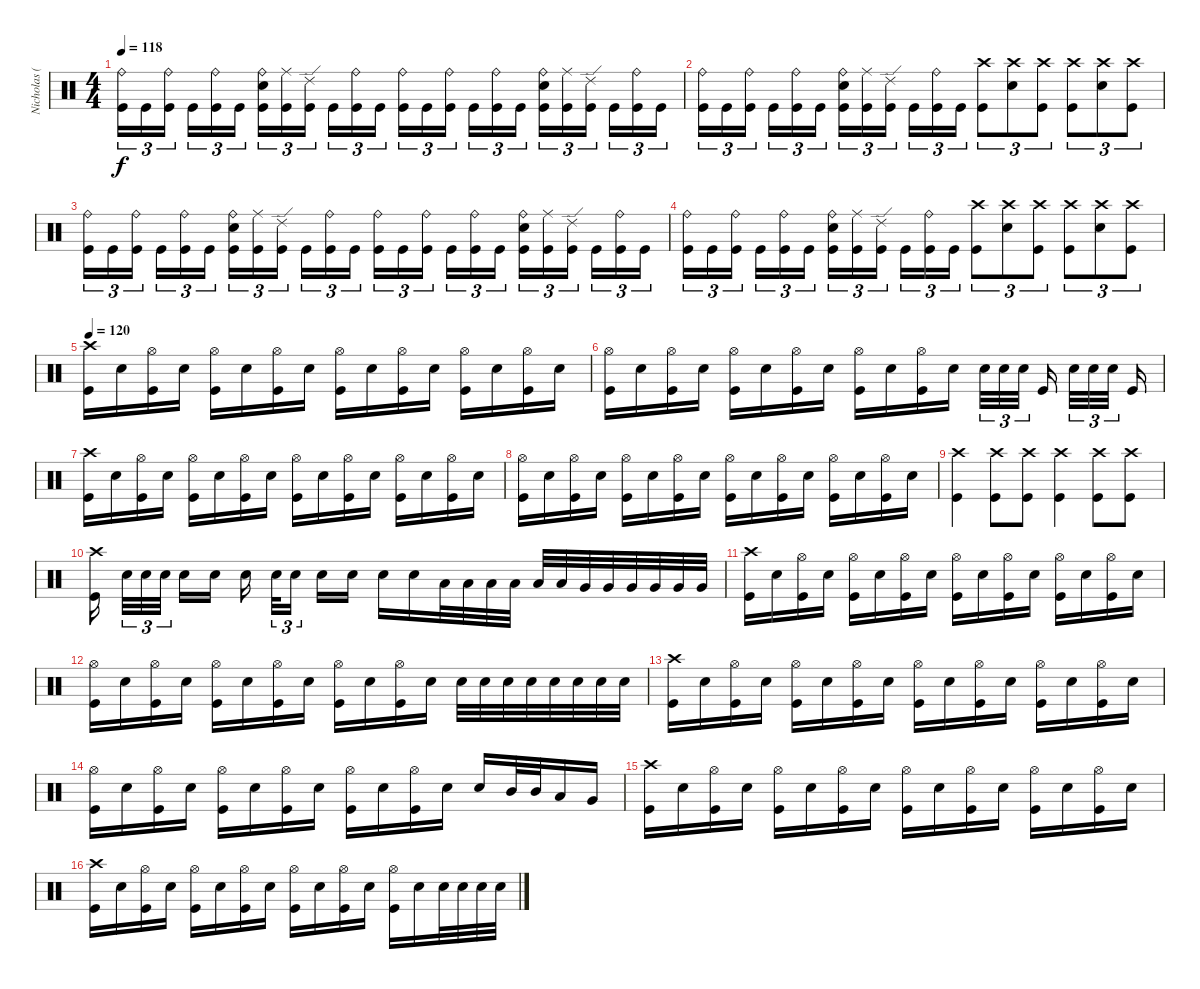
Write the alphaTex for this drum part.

\track ("Nicholas (Drums)" "Nicholas (") {instrument percussion}
\staff {score}
\articulation defaults
\ts (4 4)
\tempo 118
\clef neutral
\ks c
("Ride (bell)" "Kick (hit)").16{tu (3 2) dy f} "Kick (hit)".16{tu (3 2)} ("Ride (bell)" "Kick (hit)").16{tu (3 2)} "Kick (hit)".16{tu (3 2)} ("Ride (bell)" "Kick (hit)").16{tu (3 2)} "Kick (hit)".16{tu (3 2)} ("Ride (bell)" "Electric Snare (hit)" "Kick (hit)").16{tu (3 2)} ("Ride (middle)" "Kick (hit)").16{tu (3 2)} ("Ride (edge) 2" "Kick (hit)").16{tu (3 2)} "Kick (hit)".16{tu (3 2)} ("Ride (bell)" "Kick (hit)").16{tu (3 2)} "Kick (hit)".16{tu (3 2)} ("Ride (bell)" "Kick (hit)").16{tu (3 2)} "Kick (hit)".16{tu (3 2)} ("Ride (bell)" "Kick (hit)").16{tu (3 2)} "Kick (hit)".16{tu (3 2)} ("Ride (bell)" "Kick (hit)").16{tu (3 2)} "Kick (hit)".16{tu (3 2)} ("Ride (bell)" "Electric Snare (hit)" "Kick (hit)").16{tu (3 2)} ("Ride (middle)" "Kick (hit)").16{tu (3 2)} ("Ride (edge) 2" "Kick (hit)").16{tu (3 2)} "Kick (hit)".16{tu (3 2)} ("Ride (bell)" "Kick (hit)").16{tu (3 2)} "Kick (hit)".16{tu (3 2)} |
("Ride (bell)" "Kick (hit)").16{tu (3 2)} "Kick (hit)".16{tu (3 2)} ("Ride (bell)" "Kick (hit)").16{tu (3 2)} "Kick (hit)".16{tu (3 2)} ("Ride (bell)" "Kick (hit)").16{tu (3 2)} "Kick (hit)".16{tu (3 2)} ("Ride (bell)" "Electric Snare (hit)" "Kick (hit)").16{tu (3 2)} ("Ride (middle)" "Kick (hit)").16{tu (3 2)} ("Ride (edge) 2" "Kick (hit)").16{tu (3 2)} "Kick (hit)".16{tu (3 2)} ("Ride (bell)" "Kick (hit)").16{tu (3 2)} "Kick (hit)".16{tu (3 2)} ("Crash high (hit)" "Kick (hit)").8{tu (3 2)} ("Crash high (hit)" "Electric Snare (hit)").8{tu (3 2)} ("Crash high (hit)" "Kick (hit)").8{tu (3 2)} ("Crash high (hit)" "Kick (hit)").8{tu (3 2)} ("Crash high (hit)" "Electric Snare (hit)").8{tu (3 2)} ("Crash high (hit)" "Kick (hit)").8{tu (3 2)} |
("Ride (bell)" "Kick (hit)").16{tu (3 2)} "Kick (hit)".16{tu (3 2)} ("Ride (bell)" "Kick (hit)").16{tu (3 2)} "Kick (hit)".16{tu (3 2)} ("Ride (bell)" "Kick (hit)").16{tu (3 2)} "Kick (hit)".16{tu (3 2)} ("Ride (bell)" "Electric Snare (hit)" "Kick (hit)").16{tu (3 2)} ("Ride (middle)" "Kick (hit)").16{tu (3 2)} ("Ride (edge) 2" "Kick (hit)").16{tu (3 2)} "Kick (hit)".16{tu (3 2)} ("Ride (bell)" "Kick (hit)").16{tu (3 2)} "Kick (hit)".16{tu (3 2)} ("Ride (bell)" "Kick (hit)").16{tu (3 2)} "Kick (hit)".16{tu (3 2)} ("Ride (bell)" "Kick (hit)").16{tu (3 2)} "Kick (hit)".16{tu (3 2)} ("Ride (bell)" "Kick (hit)").16{tu (3 2)} "Kick (hit)".16{tu (3 2)} ("Ride (bell)" "Electric Snare (hit)" "Kick (hit)").16{tu (3 2)} ("Ride (middle)" "Kick (hit)").16{tu (3 2)} ("Ride (edge) 2" "Kick (hit)").16{tu (3 2)} "Kick (hit)".16{tu (3 2)} ("Ride (bell)" "Kick (hit)").16{tu (3 2)} "Kick (hit)".16{tu (3 2)} |
("Ride (bell)" "Kick (hit)").16{tu (3 2)} "Kick (hit)".16{tu (3 2)} ("Ride (bell)" "Kick (hit)").16{tu (3 2)} "Kick (hit)".16{tu (3 2)} ("Ride (bell)" "Kick (hit)").16{tu (3 2)} "Kick (hit)".16{tu (3 2)} ("Ride (bell)" "Electric Snare (hit)" "Kick (hit)").16{tu (3 2)} ("Ride (middle)" "Kick (hit)").16{tu (3 2)} ("Ride (edge) 2" "Kick (hit)").16{tu (3 2)} "Kick (hit)".16{tu (3 2)} ("Ride (bell)" "Kick (hit)").16{tu (3 2)} "Kick (hit)".16{tu (3 2)} ("Crash high (hit)" "Kick (hit)").8{tu (3 2)} ("Crash high (hit)" "Electric Snare (hit)").8{tu (3 2)} ("Crash high (hit)" "Kick (hit)").8{tu (3 2)} ("Crash high (hit)" "Kick (hit)").8{tu (3 2)} ("Crash high (hit)" "Electric Snare (hit)").8{tu (3 2)} ("Crash high (hit)" "Kick (hit)").8{tu (3 2)} |
\tempo 120
("Crash high (hit)" "Kick (hit)").16 "Electric Snare (hit)".16 ("Hi-Hat (open)" "Kick (hit)").16 "Electric Snare (hit)".16 ("Hi-Hat (open)" "Kick (hit)").16 "Electric Snare (hit)".16 ("Hi-Hat (open)" "Kick (hit)").16 "Electric Snare (hit)".16 ("Hi-Hat (open)" "Kick (hit)").16 "Electric Snare (hit)".16 ("Hi-Hat (open)" "Kick (hit)").16 "Electric Snare (hit)".16 ("Hi-Hat (open)" "Kick (hit)").16 "Electric Snare (hit)".16 ("Hi-Hat (open)" "Kick (hit)").16 "Electric Snare (hit)".16 |
("Hi-Hat (open)" "Kick (hit)").16 "Electric Snare (hit)".16 ("Hi-Hat (open)" "Kick (hit)").16 "Electric Snare (hit)".16 ("Hi-Hat (open)" "Kick (hit)").16 "Electric Snare (hit)".16 ("Hi-Hat (open)" "Kick (hit)").16 "Electric Snare (hit)".16 ("Hi-Hat (open)" "Kick (hit)").16 "Electric Snare (hit)".16 ("Hi-Hat (open)" "Kick (hit)").16 "Electric Snare (hit)".16 "Electric Snare (hit)".32{tu (3 2)} "Electric Snare (hit)".32{tu (3 2)} "Electric Snare (hit)".32{tu (3 2)} "Kick (hit)".16 "Electric Snare (hit)".32{tu (3 2)} "Electric Snare (hit)".32{tu (3 2)} "Electric Snare (hit)".32{tu (3 2)} "Kick (hit)".16 |
("Crash high (hit)" "Kick (hit)").16 "Electric Snare (hit)".16 ("Hi-Hat (open)" "Kick (hit)").16 "Electric Snare (hit)".16 ("Hi-Hat (open)" "Kick (hit)").16 "Electric Snare (hit)".16 ("Hi-Hat (open)" "Kick (hit)").16 "Electric Snare (hit)".16 ("Hi-Hat (open)" "Kick (hit)").16 "Electric Snare (hit)".16 ("Hi-Hat (open)" "Kick (hit)").16 "Electric Snare (hit)".16 ("Hi-Hat (open)" "Kick (hit)").16 "Electric Snare (hit)".16 ("Hi-Hat (open)" "Kick (hit)").16 "Electric Snare (hit)".16 |
("Hi-Hat (open)" "Kick (hit)").16 "Electric Snare (hit)".16 ("Hi-Hat (open)" "Kick (hit)").16 "Electric Snare (hit)".16 ("Hi-Hat (open)" "Kick (hit)").16 "Electric Snare (hit)".16 ("Hi-Hat (open)" "Kick (hit)").16 "Electric Snare (hit)".16 ("Hi-Hat (open)" "Kick (hit)").16 "Electric Snare (hit)".16 ("Hi-Hat (open)" "Kick (hit)").16 "Electric Snare (hit)".16 ("Hi-Hat (open)" "Kick (hit)").16 "Electric Snare (hit)".16 ("Hi-Hat (open)" "Kick (hit)").16 "Electric Snare (hit)".16 |
("Crash high (hit)" "Kick (hit)").4 ("Crash high (hit)" "Kick (hit)").8 ("Crash high (hit)" "Kick (hit)").8 ("Crash high (hit)" "Kick (hit)").4 ("Crash high (hit)" "Kick (hit)").8 ("Crash high (hit)" "Kick (hit)").8 |
("Crash high (hit)" "Kick (hit)").16 "Electric Snare (hit)".32{tu (3 2)} "Electric Snare (hit)".32{tu (3 2)} "Electric Snare (hit)".32{tu (3 2)} "Electric Snare (hit)".16 "Electric Snare (hit)".16 "Electric Snare (hit)".16 "Electric Snare (hit)".32{tu (3 2)} "Electric Snare (hit)".16{tu (3 2)} "Electric Snare (hit)".16 "Electric Snare (hit)".16 "Electric Snare (hit)".16 "Electric Snare (hit)".16 "Low Tom (hit)".32 "Low Tom (hit)".32 "Low Tom (hit)".32 "Low Tom (hit)".32 "Low Tom (hit)".32 "Low Tom (hit)".32 "Very Low Tom (hit)".32 "Very Low Tom (hit)".32 "Very Low Tom (hit)".32 "Very Low Tom (hit)".32 "Very Low Tom (hit)".32 "Very Low Tom (hit)".32 |
("Crash high (hit)" "Kick (hit)").16 "Electric Snare (hit)".16 ("Hi-Hat (open)" "Kick (hit)").16 "Electric Snare (hit)".16 ("Hi-Hat (open)" "Kick (hit)").16 "Electric Snare (hit)".16 ("Hi-Hat (open)" "Kick (hit)").16 "Electric Snare (hit)".16 ("Hi-Hat (open)" "Kick (hit)").16 "Electric Snare (hit)".16 ("Hi-Hat (open)" "Kick (hit)").16 "Electric Snare (hit)".16 ("Hi-Hat (open)" "Kick (hit)").16 "Electric Snare (hit)".16 ("Hi-Hat (open)" "Kick (hit)").16 "Electric Snare (hit)".16 |
("Hi-Hat (open)" "Kick (hit)").16 "Electric Snare (hit)".16 ("Hi-Hat (open)" "Kick (hit)").16 "Electric Snare (hit)".16 ("Hi-Hat (open)" "Kick (hit)").16 "Electric Snare (hit)".16 ("Hi-Hat (open)" "Kick (hit)").16 "Electric Snare (hit)".16 ("Hi-Hat (open)" "Kick (hit)").16 "Electric Snare (hit)".16 ("Hi-Hat (open)" "Kick (hit)").16 "Electric Snare (hit)".16 "Electric Snare (hit)".32 "Electric Snare (hit)".32 "Electric Snare (hit)".32 "Electric Snare (hit)".32 "Electric Snare (hit)".32 "Electric Snare (hit)".32 "Electric Snare (hit)".32 "Electric Snare (hit)".32 |
("Crash high (hit)" "Kick (hit)").16 "Electric Snare (hit)".16 ("Hi-Hat (open)" "Kick (hit)").16 "Electric Snare (hit)".16 ("Hi-Hat (open)" "Kick (hit)").16 "Electric Snare (hit)".16 ("Hi-Hat (open)" "Kick (hit)").16 "Electric Snare (hit)".16 ("Hi-Hat (open)" "Kick (hit)").16 "Electric Snare (hit)".16 ("Hi-Hat (open)" "Kick (hit)").16 "Electric Snare (hit)".16 ("Hi-Hat (open)" "Kick (hit)").16 "Electric Snare (hit)".16 ("Hi-Hat (open)" "Kick (hit)").16 "Electric Snare (hit)".16 |
("Hi-Hat (open)" "Kick (hit)").16 "Electric Snare (hit)".16 ("Hi-Hat (open)" "Kick (hit)").16 "Electric Snare (hit)".16 ("Hi-Hat (open)" "Kick (hit)").16 "Electric Snare (hit)".16 ("Hi-Hat (open)" "Kick (hit)").16 "Electric Snare (hit)".16 ("Hi-Hat (open)" "Kick (hit)").16 "Electric Snare (hit)".16 ("Hi-Hat (open)" "Kick (hit)").16 "Electric Snare (hit)".16 "Electric Snare (hit)".16 "Mid Tom (hit)".32 "Mid Tom (hit)".32 "Low Tom (hit)".16 "Very Low Tom (hit)".16 |
("Crash high (hit)" "Kick (hit)").16 "Electric Snare (hit)".16 ("Hi-Hat (open)" "Kick (hit)").16 "Electric Snare (hit)".16 ("Hi-Hat (open)" "Kick (hit)").16 "Electric Snare (hit)".16 ("Hi-Hat (open)" "Kick (hit)").16 "Electric Snare (hit)".16 ("Hi-Hat (open)" "Kick (hit)").16 "Electric Snare (hit)".16 ("Hi-Hat (open)" "Kick (hit)").16 "Electric Snare (hit)".16 ("Hi-Hat (open)" "Kick (hit)").16 "Electric Snare (hit)".16 ("Hi-Hat (open)" "Kick (hit)").16 "Electric Snare (hit)".16 |
("Crash high (hit)" "Kick (hit)").16 "Electric Snare (hit)".16 ("Hi-Hat (open)" "Kick (hit)").16 "Electric Snare (hit)".16 ("Hi-Hat (open)" "Kick (hit)").16 "Electric Snare (hit)".16 ("Hi-Hat (open)" "Kick (hit)").16 "Electric Snare (hit)".16 ("Hi-Hat (open)" "Kick (hit)").16 "Electric Snare (hit)".16 ("Hi-Hat (open)" "Kick (hit)").16 "Electric Snare (hit)".16 ("Hi-Hat (open)" "Kick (hit)").16 "Electric Snare (hit)".16 "Electric Snare (hit)".32 "Electric Snare (hit)".32 "Electric Snare (hit)".32 "Electric Snare (hit)".32
